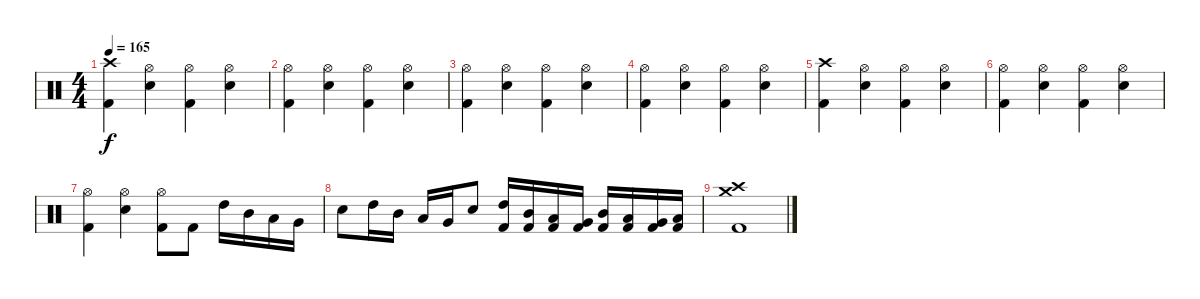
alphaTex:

\track "" {instrument percussion}
\staff {score}
\articulation defaults
\ts (4 4)
\tempo 165
\clef neutral
\ks c
("Kick (hit) 2" "Crash high (hit)").4{dy f} ("Electric Snare (hit)" "Hi-Hat (open)").4 ("Kick (hit) 2" "Hi-Hat (open)").4 ("Electric Snare (hit)" "Hi-Hat (open)").4 |
("Hi-Hat (open)" "Kick (hit) 2").4 ("Hi-Hat (open)" "Electric Snare (hit)").4 ("Hi-Hat (open)" "Kick (hit) 2").4 ("Hi-Hat (open)" "Electric Snare (hit)").4 |
("Hi-Hat (open)" "Kick (hit) 2").4 ("Hi-Hat (open)" "Electric Snare (hit)").4 ("Hi-Hat (open)" "Kick (hit) 2").4 ("Hi-Hat (open)" "Electric Snare (hit)").4 |
("Hi-Hat (open)" "Kick (hit) 2").4 ("Hi-Hat (open)" "Electric Snare (hit)").4 ("Hi-Hat (open)" "Kick (hit) 2").4 ("Hi-Hat (open)" "Electric Snare (hit)").4 |
("Kick (hit) 2" "Crash high (hit)").4 ("Electric Snare (hit)" "Hi-Hat (open)").4 ("Kick (hit) 2" "Hi-Hat (open)").4 ("Electric Snare (hit)" "Hi-Hat (open)").4 |
("Hi-Hat (open)" "Kick (hit) 2").4 ("Hi-Hat (open)" "Electric Snare (hit)").4 ("Hi-Hat (open)" "Kick (hit) 2").4 ("Hi-Hat (open)" "Electric Snare (hit)").4 |
("Hi-Hat (open)" "Kick (hit) 2").4 ("Hi-Hat (open)" "Electric Snare (hit)").4 ("Hi-Hat (open)" "Kick (hit) 2").8 "Kick (hit) 2".8 "High Tom (hit)".16 "Mid Tom (hit)".16 "Low Tom (hit)".16 "Very Low Tom (hit)".16 |
"Electric Snare (hit)".8 "High Tom (hit)".16 "Mid Tom (hit)".16 "Low Tom (hit)".16 "Very Low Tom (hit)".16 "Electric Snare (hit)".8 ("Kick (hit) 2" "High Tom (hit)").16 ("Kick (hit) 2" "Mid Tom (hit)").16 ("Kick (hit) 2" "Low Tom (hit)").16 ("Kick (hit) 2" "Very Low Tom (hit)").16 ("Kick (hit) 2" "Mid Tom (hit)").16 ("Kick (hit) 2" "Low Tom (hit)").16 ("Kick (hit) 2" "Very Low Tom (hit)").16 ("Kick (hit) 2" "Low Floor Tom (hit)").16 |
("Crash medium (hit)" "Crash high (hit)" "Kick (hit) 2").1
